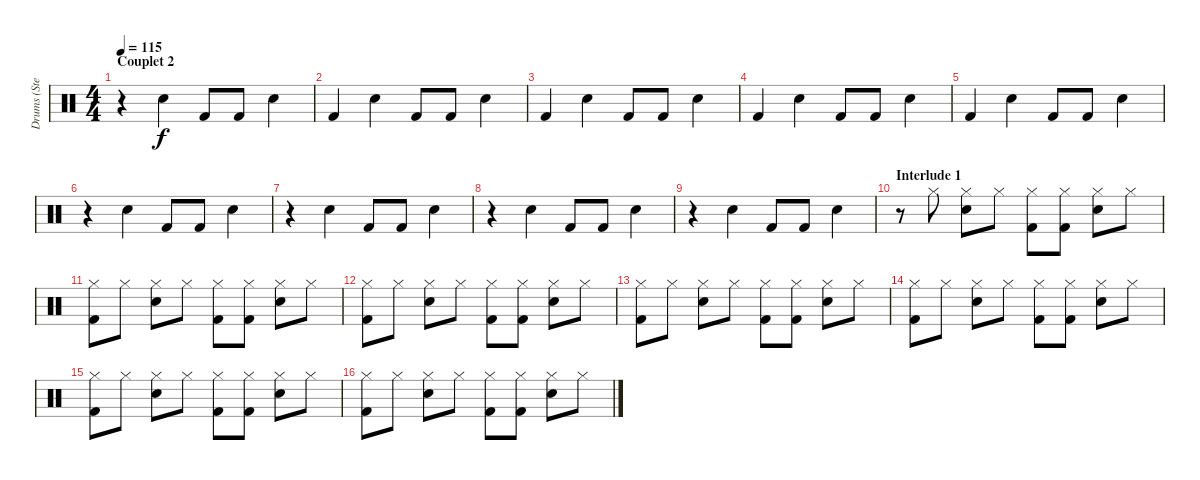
\track ("Drums (Stewart)           " "Drums (Ste") {instrument percussion}
\staff {score}
\articulation defaults
\ts (4 4)
\section ("" "Couplet 2")
\tempo 115
\clef neutral
\ks c
r.4{dy f} "Snare (hit) 2".4 "Kick (hit) 2".8 "Kick (hit) 2".8 "Snare (hit) 2".4 |
"Kick (hit) 2".4 "Snare (hit) 2".4 "Kick (hit) 2".8 "Kick (hit) 2".8 "Snare (hit) 2".4 |
"Kick (hit) 2".4 "Snare (hit) 2".4 "Kick (hit) 2".8 "Kick (hit) 2".8 "Snare (hit) 2".4 |
"Kick (hit) 2".4 "Snare (hit) 2".4 "Kick (hit) 2".8 "Kick (hit) 2".8 "Snare (hit) 2".4 |
"Kick (hit) 2".4 "Snare (hit) 2".4 "Kick (hit) 2".8 "Kick (hit) 2".8 "Snare (hit) 2".4 |
r.4 "Snare (hit) 2".4 "Kick (hit) 2".8 "Kick (hit) 2".8 "Snare (hit) 2".4 |
r.4 "Snare (hit) 2".4 "Kick (hit) 2".8 "Kick (hit) 2".8 "Snare (hit) 2".4 |
r.4 "Snare (hit) 2".4 "Kick (hit) 2".8 "Kick (hit) 2".8 "Snare (hit) 2".4 |
r.4 "Snare (hit) 2".4 "Kick (hit) 2".8 "Kick (hit) 2".8 "Snare (hit) 2".4 |
\section ("" "Interlude 1")
r.8 "Hi-Hat (closed)".8 ("Hi-Hat (closed)" "Snare (hit) 2").8 "Hi-Hat (closed)".8 ("Hi-Hat (closed)" "Kick (hit) 2").8 ("Hi-Hat (closed)" "Kick (hit) 2").8 ("Hi-Hat (closed)" "Snare (hit) 2").8 "Hi-Hat (closed)".8 |
("Hi-Hat (closed)" "Kick (hit) 2").8 "Hi-Hat (closed)".8 ("Hi-Hat (closed)" "Snare (hit) 2").8 "Hi-Hat (closed)".8 ("Hi-Hat (closed)" "Kick (hit) 2").8 ("Hi-Hat (closed)" "Kick (hit) 2").8 ("Hi-Hat (closed)" "Snare (hit) 2").8 "Hi-Hat (closed)".8 |
("Hi-Hat (closed)" "Kick (hit) 2").8 "Hi-Hat (closed)".8 ("Hi-Hat (closed)" "Snare (hit) 2").8 "Hi-Hat (closed)".8 ("Hi-Hat (closed)" "Kick (hit) 2").8 ("Hi-Hat (closed)" "Kick (hit) 2").8 ("Hi-Hat (closed)" "Snare (hit) 2").8 "Hi-Hat (closed)".8 |
("Hi-Hat (closed)" "Kick (hit) 2").8 "Hi-Hat (closed)".8 ("Hi-Hat (closed)" "Snare (hit) 2").8 "Hi-Hat (closed)".8 ("Hi-Hat (closed)" "Kick (hit) 2").8 ("Hi-Hat (closed)" "Kick (hit) 2").8 ("Hi-Hat (closed)" "Snare (hit) 2").8 "Hi-Hat (closed)".8 |
("Hi-Hat (closed)" "Kick (hit) 2").8 "Hi-Hat (closed)".8 ("Hi-Hat (closed)" "Snare (hit) 2").8 "Hi-Hat (closed)".8 ("Hi-Hat (closed)" "Kick (hit) 2").8 ("Hi-Hat (closed)" "Kick (hit) 2").8 ("Hi-Hat (closed)" "Snare (hit) 2").8 "Hi-Hat (closed)".8 |
("Hi-Hat (closed)" "Kick (hit) 2").8 "Hi-Hat (closed)".8 ("Hi-Hat (closed)" "Snare (hit) 2").8 "Hi-Hat (closed)".8 ("Hi-Hat (closed)" "Kick (hit) 2").8 ("Hi-Hat (closed)" "Kick (hit) 2").8 ("Hi-Hat (closed)" "Snare (hit) 2").8 "Hi-Hat (closed)".8 |
("Hi-Hat (closed)" "Kick (hit) 2").8 "Hi-Hat (closed)".8 ("Hi-Hat (closed)" "Snare (hit) 2").8 "Hi-Hat (closed)".8 ("Hi-Hat (closed)" "Kick (hit) 2").8 ("Hi-Hat (closed)" "Kick (hit) 2").8 ("Hi-Hat (closed)" "Snare (hit) 2").8 "Hi-Hat (closed)".8
